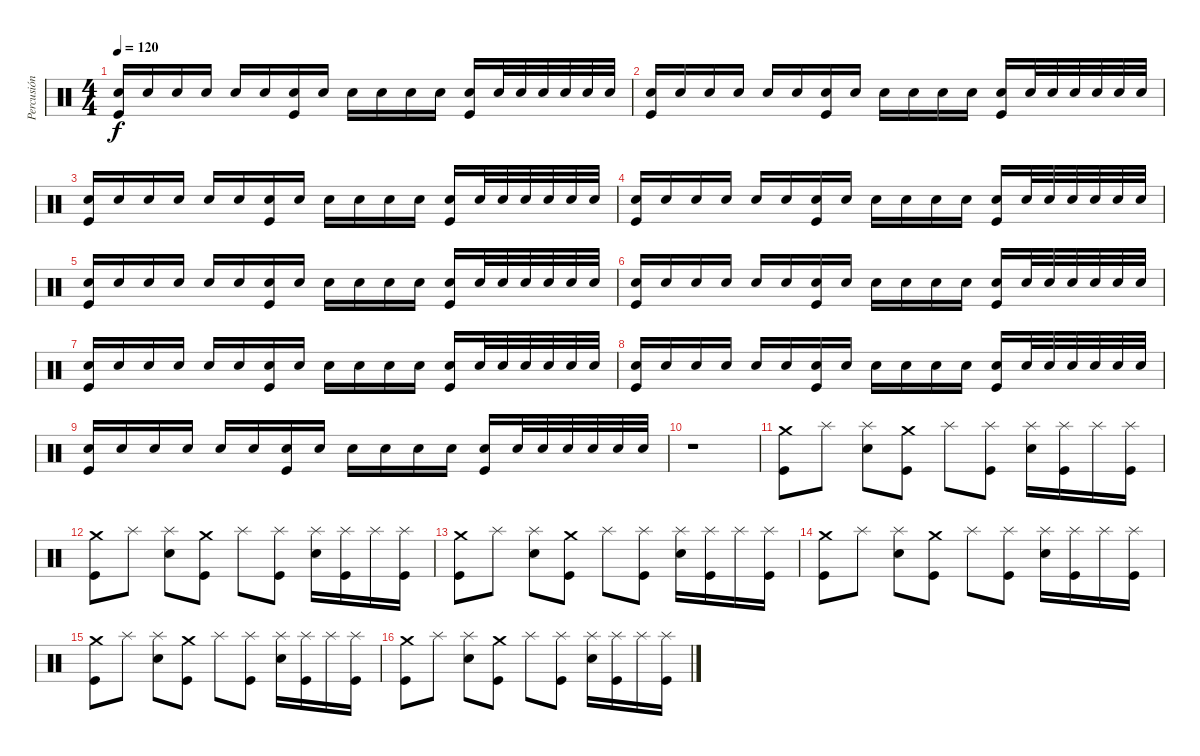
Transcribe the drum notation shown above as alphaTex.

\track ("Percusión" "Percusión") {instrument percussion}
\staff {score}
\articulation defaults
\ts (4 4)
\tempo 120
\clef neutral
\ks c
("Electric Snare (hit)" "Kick (hit)").16{dy f} "Electric Snare (hit)".16 "Electric Snare (hit)".16 "Electric Snare (hit)".16 "Electric Snare (hit)".16 "Electric Snare (hit)".16 ("Electric Snare (hit)" "Kick (hit)").16 "Electric Snare (hit)".16 "Electric Snare (hit)".16 "Electric Snare (hit)".16 "Electric Snare (hit)".16 "Electric Snare (hit)".16 ("Electric Snare (hit)" "Kick (hit)").16 "Electric Snare (hit)".32 "Electric Snare (hit)".32 "Electric Snare (hit)".32 "Electric Snare (hit)".32 "Electric Snare (hit)".32 "Electric Snare (hit)".32 |
("Electric Snare (hit)" "Kick (hit)").16 "Electric Snare (hit)".16 "Electric Snare (hit)".16 "Electric Snare (hit)".16 "Electric Snare (hit)".16 "Electric Snare (hit)".16 ("Electric Snare (hit)" "Kick (hit)").16 "Electric Snare (hit)".16 "Electric Snare (hit)".16 "Electric Snare (hit)".16 "Electric Snare (hit)".16 "Electric Snare (hit)".16 ("Electric Snare (hit)" "Kick (hit)").16 "Electric Snare (hit)".32 "Electric Snare (hit)".32 "Electric Snare (hit)".32 "Electric Snare (hit)".32 "Electric Snare (hit)".32 "Electric Snare (hit)".32 |
("Electric Snare (hit)" "Kick (hit)").16 "Electric Snare (hit)".16 "Electric Snare (hit)".16 "Electric Snare (hit)".16 "Electric Snare (hit)".16 "Electric Snare (hit)".16 ("Electric Snare (hit)" "Kick (hit)").16 "Electric Snare (hit)".16 "Electric Snare (hit)".16 "Electric Snare (hit)".16 "Electric Snare (hit)".16 "Electric Snare (hit)".16 ("Electric Snare (hit)" "Kick (hit)").16 "Electric Snare (hit)".32 "Electric Snare (hit)".32 "Electric Snare (hit)".32 "Electric Snare (hit)".32 "Electric Snare (hit)".32 "Electric Snare (hit)".32 |
("Electric Snare (hit)" "Kick (hit)").16 "Electric Snare (hit)".16 "Electric Snare (hit)".16 "Electric Snare (hit)".16 "Electric Snare (hit)".16 "Electric Snare (hit)".16 ("Electric Snare (hit)" "Kick (hit)").16 "Electric Snare (hit)".16 "Electric Snare (hit)".16 "Electric Snare (hit)".16 "Electric Snare (hit)".16 "Electric Snare (hit)".16 ("Electric Snare (hit)" "Kick (hit)").16 "Electric Snare (hit)".32 "Electric Snare (hit)".32 "Electric Snare (hit)".32 "Electric Snare (hit)".32 "Electric Snare (hit)".32 "Electric Snare (hit)".32 |
("Electric Snare (hit)" "Kick (hit)").16 "Electric Snare (hit)".16 "Electric Snare (hit)".16 "Electric Snare (hit)".16 "Electric Snare (hit)".16 "Electric Snare (hit)".16 ("Electric Snare (hit)" "Kick (hit)").16 "Electric Snare (hit)".16 "Electric Snare (hit)".16 "Electric Snare (hit)".16 "Electric Snare (hit)".16 "Electric Snare (hit)".16 ("Electric Snare (hit)" "Kick (hit)").16 "Electric Snare (hit)".32 "Electric Snare (hit)".32 "Electric Snare (hit)".32 "Electric Snare (hit)".32 "Electric Snare (hit)".32 "Electric Snare (hit)".32 |
("Electric Snare (hit)" "Kick (hit)").16 "Electric Snare (hit)".16 "Electric Snare (hit)".16 "Electric Snare (hit)".16 "Electric Snare (hit)".16 "Electric Snare (hit)".16 ("Electric Snare (hit)" "Kick (hit)").16 "Electric Snare (hit)".16 "Electric Snare (hit)".16 "Electric Snare (hit)".16 "Electric Snare (hit)".16 "Electric Snare (hit)".16 ("Electric Snare (hit)" "Kick (hit)").16 "Electric Snare (hit)".32 "Electric Snare (hit)".32 "Electric Snare (hit)".32 "Electric Snare (hit)".32 "Electric Snare (hit)".32 "Electric Snare (hit)".32 |
("Electric Snare (hit)" "Kick (hit)").16 "Electric Snare (hit)".16 "Electric Snare (hit)".16 "Electric Snare (hit)".16 "Electric Snare (hit)".16 "Electric Snare (hit)".16 ("Electric Snare (hit)" "Kick (hit)").16 "Electric Snare (hit)".16 "Electric Snare (hit)".16 "Electric Snare (hit)".16 "Electric Snare (hit)".16 "Electric Snare (hit)".16 ("Electric Snare (hit)" "Kick (hit)").16 "Electric Snare (hit)".32 "Electric Snare (hit)".32 "Electric Snare (hit)".32 "Electric Snare (hit)".32 "Electric Snare (hit)".32 "Electric Snare (hit)".32 |
("Electric Snare (hit)" "Kick (hit)").16 "Electric Snare (hit)".16 "Electric Snare (hit)".16 "Electric Snare (hit)".16 "Electric Snare (hit)".16 "Electric Snare (hit)".16 ("Electric Snare (hit)" "Kick (hit)").16 "Electric Snare (hit)".16 "Electric Snare (hit)".16 "Electric Snare (hit)".16 "Electric Snare (hit)".16 "Electric Snare (hit)".16 ("Electric Snare (hit)" "Kick (hit)").16 "Electric Snare (hit)".32 "Electric Snare (hit)".32 "Electric Snare (hit)".32 "Electric Snare (hit)".32 "Electric Snare (hit)".32 "Electric Snare (hit)".32 |
("Electric Snare (hit)" "Kick (hit)").16 "Electric Snare (hit)".16 "Electric Snare (hit)".16 "Electric Snare (hit)".16 "Electric Snare (hit)".16 "Electric Snare (hit)".16 ("Electric Snare (hit)" "Kick (hit)").16 "Electric Snare (hit)".16 "Electric Snare (hit)".16 "Electric Snare (hit)".16 "Electric Snare (hit)".16 "Electric Snare (hit)".16 ("Electric Snare (hit)" "Kick (hit)").16 "Electric Snare (hit)".32 "Electric Snare (hit)".32 "Electric Snare (hit)".32 "Electric Snare (hit)".32 "Electric Snare (hit)".32 "Electric Snare (hit)".32 |
r.1 |
("Crash medium (hit)" "Kick (hit)").8 "Splash (hit)".8 ("Splash (hit)" "Electric Snare (hit)").8 ("Crash medium (hit)" "Kick (hit)").8 "Splash (hit)".8 ("Splash (hit)" "Kick (hit)").8 ("Splash (hit)" "Electric Snare (hit)").16 ("Splash (hit)" "Kick (hit)").16 "Splash (hit)".16 ("Splash (hit)" "Kick (hit)").16 |
("Crash medium (hit)" "Kick (hit)").8 "Splash (hit)".8 ("Splash (hit)" "Electric Snare (hit)").8 ("Crash medium (hit)" "Kick (hit)").8 "Splash (hit)".8 ("Splash (hit)" "Kick (hit)").8 ("Splash (hit)" "Electric Snare (hit)").16 ("Splash (hit)" "Kick (hit)").16 "Splash (hit)".16 ("Splash (hit)" "Kick (hit)").16 |
("Crash medium (hit)" "Kick (hit)").8 "Splash (hit)".8 ("Splash (hit)" "Electric Snare (hit)").8 ("Crash medium (hit)" "Kick (hit)").8 "Splash (hit)".8 ("Splash (hit)" "Kick (hit)").8 ("Splash (hit)" "Electric Snare (hit)").16 ("Splash (hit)" "Kick (hit)").16 "Splash (hit)".16 ("Splash (hit)" "Kick (hit)").16 |
("Crash medium (hit)" "Kick (hit)").8 "Splash (hit)".8 ("Splash (hit)" "Electric Snare (hit)").8 ("Crash medium (hit)" "Kick (hit)").8 "Splash (hit)".8 ("Splash (hit)" "Kick (hit)").8 ("Splash (hit)" "Electric Snare (hit)").16 ("Splash (hit)" "Kick (hit)").16 "Splash (hit)".16 ("Splash (hit)" "Kick (hit)").16 |
("Crash medium (hit)" "Kick (hit)").8 "Splash (hit)".8 ("Splash (hit)" "Electric Snare (hit)").8 ("Crash medium (hit)" "Kick (hit)").8 "Splash (hit)".8 ("Splash (hit)" "Kick (hit)").8 ("Splash (hit)" "Electric Snare (hit)").16 ("Splash (hit)" "Kick (hit)").16 "Splash (hit)".16 ("Splash (hit)" "Kick (hit)").16 |
("Crash medium (hit)" "Kick (hit)").8 "Splash (hit)".8 ("Splash (hit)" "Electric Snare (hit)").8 ("Crash medium (hit)" "Kick (hit)").8 "Splash (hit)".8 ("Splash (hit)" "Kick (hit)").8 ("Splash (hit)" "Electric Snare (hit)").16 ("Splash (hit)" "Kick (hit)").16 "Splash (hit)".16 ("Splash (hit)" "Kick (hit)").16
